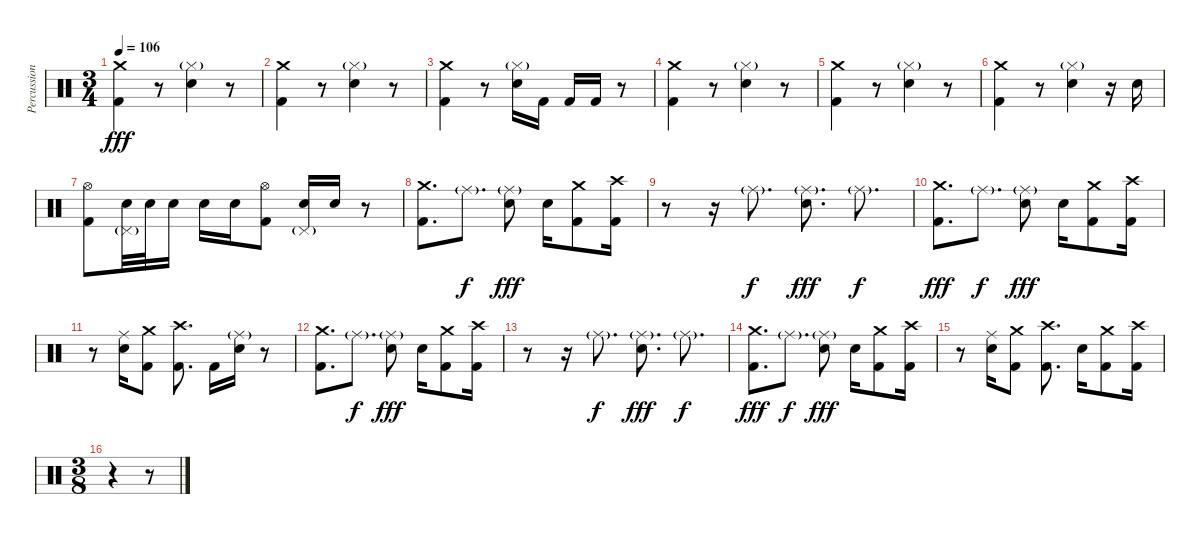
\track ("Percussion" "Percussion") {instrument percussion}
\staff {score}
\articulation defaults
\ts (3 4)
\tempo 106
\clef neutral
\ks c
("Crash medium (hit)" "Kick (hit) 2").4{dy fff} r.8 ("Hi-Hat (closed)"{g} "Electric Snare (hit)").4 r.8 |
("Crash medium (hit)" "Kick (hit) 2").4 r.8 ("Hi-Hat (closed)"{g} "Electric Snare (hit)").4 r.8 |
("Crash medium (hit)" "Kick (hit) 2").4 r.8 ("Hi-Hat (closed)"{g} "Electric Snare (hit)").16 "Kick (hit) 2".16 "Kick (hit) 2".16 "Kick (hit) 2".16 r.8 |
("Crash medium (hit)" "Kick (hit) 2").4 r.8 ("Hi-Hat (closed)"{g} "Electric Snare (hit)").4 r.8 |
("Crash medium (hit)" "Kick (hit) 2").4 r.8 ("Hi-Hat (closed)"{g} "Electric Snare (hit)").4 r.8 |
("Crash medium (hit)" "Kick (hit) 2").4 r.8 ("Hi-Hat (closed)"{g} "Electric Snare (hit)").4 r.16 "Electric Snare (hit)".16 |
("Hi-Hat (open)" "Kick (hit) 2").8 ("Electric Snare (hit)" "Pedal Hi-Hat (hit)"{g}).32 "Electric Snare (hit)".32 "Electric Snare (hit)".16 "Electric Snare (hit)".16 "Electric Snare (hit)".16 ("Hi-Hat (open)" "Kick (hit) 2").8 ("Electric Snare (hit)" "Pedal Hi-Hat (hit)"{g}).16 "Electric Snare (hit)".16 r.8 |
("Crash medium (hit)" "Kick (hit) 2").8{d} "Ride (middle)"{g}.8{d dy f} ("Ride (middle)"{g} "Electric Snare (hit)").8{dy fff} "Electric Snare (hit)".16 ("Crash medium (hit)" "Kick (hit) 2").8 ("Crash high (hit)" "Kick (hit) 2").16 |
r.8 r.16 "Ride (middle)"{g}.8{d dy f} ("Ride (middle)"{g} "Electric Snare (hit)").8{d dy fff} "Ride (middle)"{g}.8{d dy f} |
("Crash medium (hit)" "Kick (hit) 2").8{d dy fff} "Ride (middle)"{g}.8{d dy f} ("Ride (middle)"{g} "Electric Snare (hit)").8{dy fff} "Electric Snare (hit)".16 ("Crash medium (hit)" "Kick (hit) 2").8 ("Crash high (hit)" "Kick (hit) 2").16 |
r.8 ("Ride (middle)" "Electric Snare (hit)").16 ("Crash medium (hit)" "Kick (hit) 2").8 ("Crash high (hit)" "Kick (hit) 2").8{d} "Kick (hit) 2".16 ("Ride (middle)"{g} "Electric Snare (hit)").16 r.8 |
("Crash medium (hit)" "Kick (hit) 2").8{d} "Ride (middle)"{g}.8{d dy f} ("Ride (middle)"{g} "Electric Snare (hit)").8{dy fff} "Electric Snare (hit)".16 ("Crash medium (hit)" "Kick (hit) 2").8 ("Crash high (hit)" "Kick (hit) 2").16 |
r.8 r.16 "Ride (middle)"{g}.8{d dy f} ("Ride (middle)"{g} "Electric Snare (hit)").8{d dy fff} "Ride (middle)"{g}.8{d dy f} |
("Crash medium (hit)" "Kick (hit) 2").8{d dy fff} "Ride (middle)"{g}.8{d dy f} ("Ride (middle)"{g} "Electric Snare (hit)").8{dy fff} "Electric Snare (hit)".16 ("Crash medium (hit)" "Kick (hit) 2").8 ("Crash high (hit)" "Kick (hit) 2").16 |
r.8 ("Ride (middle)" "Electric Snare (hit)").16 ("Crash medium (hit)" "Kick (hit) 2").8 ("Crash high (hit)" "Kick (hit) 2").8{d} "Electric Snare (hit)".16 ("Crash medium (hit)" "Kick (hit) 2").8 ("Crash high (hit)" "Kick (hit) 2").16 |
\ts (3 8)
r.4 r.8
